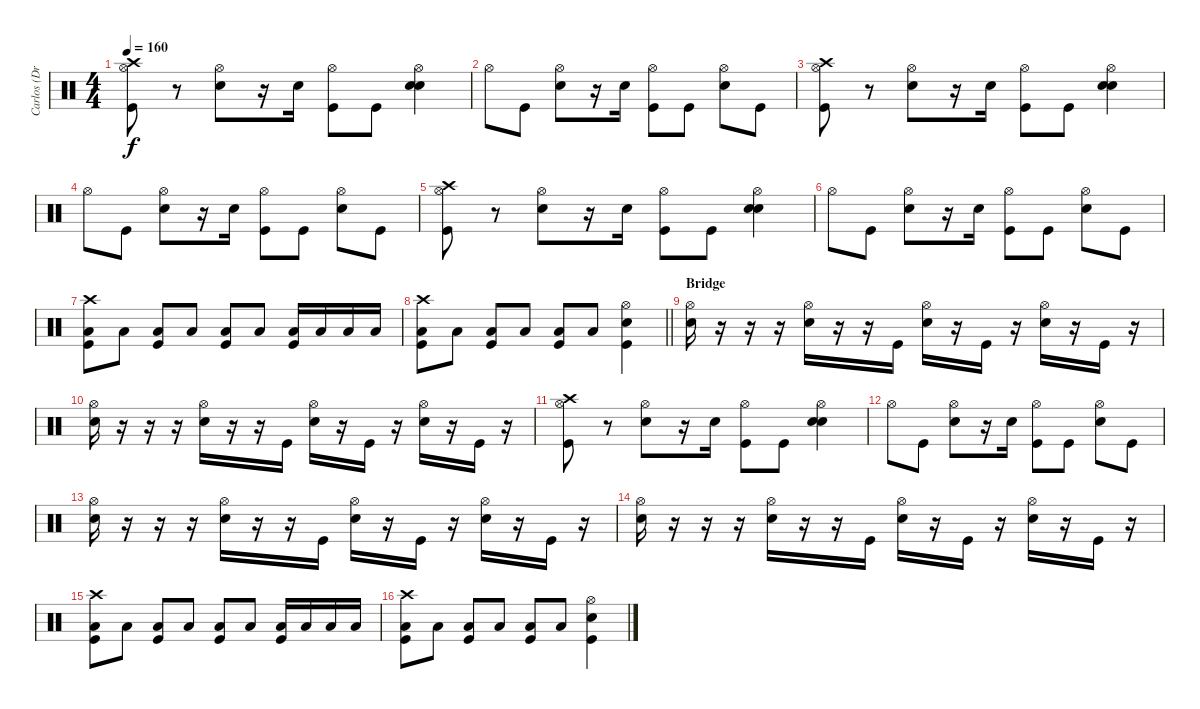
\track ("Carlos (Drums)" "Carlos (Dr") {instrument percussion}
\staff {score}
\articulation defaults
\ts (4 4)
\tempo 160
\clef neutral
\ks c
("Crash high (hit)" "Hi-Hat (open)" "Kick (hit)").8{dy f} r.8 ("Hi-Hat (open)" "Snare (hit) 2").8 r.16 "Snare (hit) 2".16 ("Hi-Hat (open)" "Kick (hit)").8 "Kick (hit)".8 ("Hi-Hat (open)" "Snare (hit) 2" "Snare (hit) 2").4 |
"Hi-Hat (open)".8 "Kick (hit)".8 ("Hi-Hat (open)" "Snare (hit) 2").8 r.16 "Snare (hit) 2".16 ("Hi-Hat (open)" "Kick (hit)").8 "Kick (hit)".8 ("Hi-Hat (open)" "Snare (hit) 2").8 "Kick (hit)".8 |
("Crash high (hit)" "Hi-Hat (open)" "Kick (hit)").8 r.8 ("Hi-Hat (open)" "Snare (hit) 2").8 r.16 "Snare (hit) 2".16 ("Hi-Hat (open)" "Kick (hit)").8 "Kick (hit)".8 ("Hi-Hat (open)" "Snare (hit) 2" "Snare (hit) 2").4 |
"Hi-Hat (open)".8 "Kick (hit)".8 ("Hi-Hat (open)" "Snare (hit) 2").8 r.16 "Snare (hit) 2".16 ("Hi-Hat (open)" "Kick (hit)").8 "Kick (hit)".8 ("Hi-Hat (open)" "Snare (hit) 2").8 "Kick (hit)".8 |
("Crash high (hit)" "Hi-Hat (open)" "Kick (hit)").8 r.8 ("Hi-Hat (open)" "Snare (hit) 2").8 r.16 "Snare (hit) 2".16 ("Hi-Hat (open)" "Kick (hit)").8 "Kick (hit)".8 ("Hi-Hat (open)" "Snare (hit) 2" "Snare (hit) 2").4 |
"Hi-Hat (open)".8 "Kick (hit)".8 ("Hi-Hat (open)" "Snare (hit) 2").8 r.16 "Snare (hit) 2".16 ("Hi-Hat (open)" "Kick (hit)").8 "Kick (hit)".8 ("Hi-Hat (open)" "Snare (hit) 2").8 "Kick (hit)".8 |
("Crash high (hit)" "Low Floor Tom (hit)" "Kick (hit)").8 "Low Floor Tom (hit)".8 ("Low Floor Tom (hit)" "Kick (hit)").8 "Low Floor Tom (hit)".8 ("Low Floor Tom (hit)" "Kick (hit)").8 "Low Floor Tom (hit)".8 ("Low Floor Tom (hit)" "Kick (hit)").16 "Low Floor Tom (hit)".16 "Low Floor Tom (hit)".16 "Low Floor Tom (hit)".16 |
\barLineRight lightlight
("Crash high (hit)" "Low Floor Tom (hit)" "Kick (hit)").8 "Low Floor Tom (hit)".8 ("Low Floor Tom (hit)" "Kick (hit)").8 "Low Floor Tom (hit)".8 ("Low Floor Tom (hit)" "Kick (hit)").8 "Low Floor Tom (hit)".8 ("Hi-Hat (open)" "Snare (hit) 2" "Kick (hit)").4 |
\section ("" "Bridge")
("Hi-Hat (open)" "Snare (hit) 2").16 r.16 r.16 r.16 ("Hi-Hat (open)" "Snare (hit) 2").16 r.16 r.16 "Kick (hit)".16 ("Hi-Hat (open)" "Snare (hit) 2").16 r.16 "Kick (hit)".16 r.16 ("Hi-Hat (open)" "Snare (hit) 2").16 r.16 "Kick (hit)".16 r.16 |
("Hi-Hat (open)" "Snare (hit) 2").16 r.16 r.16 r.16 ("Hi-Hat (open)" "Snare (hit) 2").16 r.16 r.16 "Kick (hit)".16 ("Hi-Hat (open)" "Snare (hit) 2").16 r.16 "Kick (hit)".16 r.16 ("Hi-Hat (open)" "Snare (hit) 2").16 r.16 "Kick (hit)".16 r.16 |
("Crash high (hit)" "Hi-Hat (open)" "Kick (hit)").8 r.8 ("Hi-Hat (open)" "Snare (hit) 2").8 r.16 "Snare (hit) 2".16 ("Hi-Hat (open)" "Kick (hit)").8 "Kick (hit)".8 ("Hi-Hat (open)" "Snare (hit) 2" "Snare (hit) 2").4 |
"Hi-Hat (open)".8 "Kick (hit)".8 ("Hi-Hat (open)" "Snare (hit) 2").8 r.16 "Snare (hit) 2".16 ("Hi-Hat (open)" "Kick (hit)").8 "Kick (hit)".8 ("Hi-Hat (open)" "Snare (hit) 2").8 "Kick (hit)".8 |
("Hi-Hat (open)" "Snare (hit) 2").16 r.16 r.16 r.16 ("Hi-Hat (open)" "Snare (hit) 2").16 r.16 r.16 "Kick (hit)".16 ("Hi-Hat (open)" "Snare (hit) 2").16 r.16 "Kick (hit)".16 r.16 ("Hi-Hat (open)" "Snare (hit) 2").16 r.16 "Kick (hit)".16 r.16 |
("Hi-Hat (open)" "Snare (hit) 2").16 r.16 r.16 r.16 ("Hi-Hat (open)" "Snare (hit) 2").16 r.16 r.16 "Kick (hit)".16 ("Hi-Hat (open)" "Snare (hit) 2").16 r.16 "Kick (hit)".16 r.16 ("Hi-Hat (open)" "Snare (hit) 2").16 r.16 "Kick (hit)".16 r.16 |
("Crash high (hit)" "Low Floor Tom (hit)" "Kick (hit)").8 "Low Floor Tom (hit)".8 ("Low Floor Tom (hit)" "Kick (hit)").8 "Low Floor Tom (hit)".8 ("Low Floor Tom (hit)" "Kick (hit)").8 "Low Floor Tom (hit)".8 ("Low Floor Tom (hit)" "Kick (hit)").16 "Low Floor Tom (hit)".16 "Low Floor Tom (hit)".16 "Low Floor Tom (hit)".16 |
("Crash high (hit)" "Low Floor Tom (hit)" "Kick (hit)").8 "Low Floor Tom (hit)".8 ("Low Floor Tom (hit)" "Kick (hit)").8 "Low Floor Tom (hit)".8 ("Low Floor Tom (hit)" "Kick (hit)").8 "Low Floor Tom (hit)".8 ("Hi-Hat (open)" "Snare (hit) 2" "Kick (hit)").4
